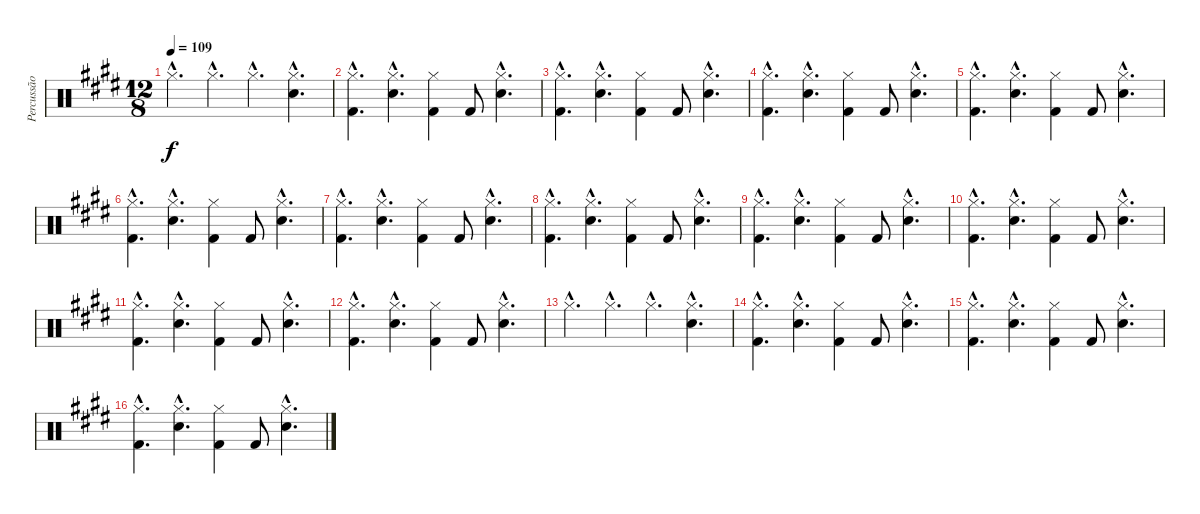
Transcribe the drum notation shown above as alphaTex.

\track ("Percussão" "Percussão") {instrument percussion}
\staff {score}
\articulation defaults
\ts (12 8)
\tempo 109
\clef neutral
\ks e "Hi-Hat (closed)"{hac}.4{d dy f} "Hi-Hat (closed)"{hac}.4{d} "Hi-Hat (closed)"{hac}.4{d}
("Hi-Hat (closed)"{hac} "Electric Snare (hit)"{hac}).4{d} |
("Hi-Hat (closed)"{hac} "Kick (hit) 2"{hac}).4{d} ("Hi-Hat (closed)"{hac} "Electric Snare (hit)"{hac}).4{d} ("Hi-Hat (closed)" "Kick (hit) 2").4 "Kick (hit) 2".8 ("Hi-Hat (closed)"{hac} "Electric Snare (hit)"{hac}).4{d} |
("Hi-Hat (closed)"{hac} "Kick (hit) 2"{hac}).4{d} ("Hi-Hat (closed)"{hac} "Electric Snare (hit)"{hac}).4{d} ("Hi-Hat (closed)" "Kick (hit) 2").4 "Kick (hit) 2".8 ("Hi-Hat (closed)"{hac} "Electric Snare (hit)"{hac}).4{d} |
("Hi-Hat (closed)"{hac} "Kick (hit) 2"{hac}).4{d} ("Hi-Hat (closed)"{hac} "Electric Snare (hit)"{hac}).4{d} ("Hi-Hat (closed)" "Kick (hit) 2").4 "Kick (hit) 2".8 ("Hi-Hat (closed)"{hac} "Electric Snare (hit)"{hac}).4{d} |
("Hi-Hat (closed)"{hac} "Kick (hit) 2"{hac}).4{d} ("Hi-Hat (closed)"{hac} "Electric Snare (hit)"{hac}).4{d} ("Hi-Hat (closed)" "Kick (hit) 2").4 "Kick (hit) 2".8 ("Hi-Hat (closed)"{hac} "Electric Snare (hit)"{hac}).4{d} |
("Hi-Hat (closed)"{hac} "Kick (hit) 2"{hac}).4{d} ("Hi-Hat (closed)"{hac} "Electric Snare (hit)"{hac}).4{d} ("Hi-Hat (closed)" "Kick (hit) 2").4 "Kick (hit) 2".8 ("Hi-Hat (closed)"{hac} "Electric Snare (hit)"{hac}).4{d} |
("Hi-Hat (closed)"{hac} "Kick (hit) 2"{hac}).4{d} ("Hi-Hat (closed)"{hac} "Electric Snare (hit)"{hac}).4{d} ("Hi-Hat (closed)" "Kick (hit) 2").4 "Kick (hit) 2".8 ("Hi-Hat (closed)"{hac} "Electric Snare (hit)"{hac}).4{d} |
("Hi-Hat (closed)"{hac} "Kick (hit) 2"{hac}).4{d} ("Hi-Hat (closed)"{hac} "Electric Snare (hit)"{hac}).4{d} ("Hi-Hat (closed)" "Kick (hit) 2").4 "Kick (hit) 2".8 ("Hi-Hat (closed)"{hac} "Electric Snare (hit)"{hac}).4{d} |
("Hi-Hat (closed)"{hac} "Kick (hit) 2"{hac}).4{d} ("Hi-Hat (closed)"{hac} "Electric Snare (hit)"{hac}).4{d} ("Hi-Hat (closed)" "Kick (hit) 2").4 "Kick (hit) 2".8 ("Hi-Hat (closed)"{hac} "Electric Snare (hit)"{hac}).4{d} |
("Hi-Hat (closed)"{hac} "Kick (hit) 2"{hac}).4{d} ("Hi-Hat (closed)"{hac} "Electric Snare (hit)"{hac}).4{d} ("Hi-Hat (closed)" "Kick (hit) 2").4 "Kick (hit) 2".8 ("Hi-Hat (closed)"{hac} "Electric Snare (hit)"{hac}).4{d} |
("Hi-Hat (closed)"{hac} "Kick (hit) 2"{hac}).4{d} ("Hi-Hat (closed)"{hac} "Electric Snare (hit)"{hac}).4{d} ("Hi-Hat (closed)" "Kick (hit) 2").4 "Kick (hit) 2".8 ("Hi-Hat (closed)"{hac} "Electric Snare (hit)"{hac}).4{d} |
("Hi-Hat (closed)"{hac} "Kick (hit) 2"{hac}).4{d} ("Hi-Hat (closed)"{hac} "Electric Snare (hit)"{hac}).4{d} ("Hi-Hat (closed)" "Kick (hit) 2").4 "Kick (hit) 2".8 ("Hi-Hat (closed)"{hac} "Electric Snare (hit)"{hac}).4{d} |
"Hi-Hat (closed)"{hac}.4{d} "Hi-Hat (closed)"{hac}.4{d} "Hi-Hat (closed)"{hac}.4{d} ("Hi-Hat (closed)"{hac} "Electric Snare (hit)"{hac}).4{d} |
("Hi-Hat (closed)"{hac} "Kick (hit) 2"{hac}).4{d} ("Hi-Hat (closed)"{hac} "Electric Snare (hit)"{hac}).4{d} ("Hi-Hat (closed)" "Kick (hit) 2").4 "Kick (hit) 2".8 ("Hi-Hat (closed)"{hac} "Electric Snare (hit)"{hac}).4{d} |
("Hi-Hat (closed)"{hac} "Kick (hit) 2"{hac}).4{d} ("Hi-Hat (closed)"{hac} "Electric Snare (hit)"{hac}).4{d} ("Hi-Hat (closed)" "Kick (hit) 2").4 "Kick (hit) 2".8 ("Hi-Hat (closed)"{hac} "Electric Snare (hit)"{hac}).4{d} |
("Hi-Hat (closed)"{hac} "Kick (hit) 2"{hac}).4{d} ("Hi-Hat (closed)"{hac} "Electric Snare (hit)"{hac}).4{d} ("Hi-Hat (closed)" "Kick (hit) 2").4 "Kick (hit) 2".8 ("Hi-Hat (closed)"{hac} "Electric Snare (hit)"{hac}).4{d}
